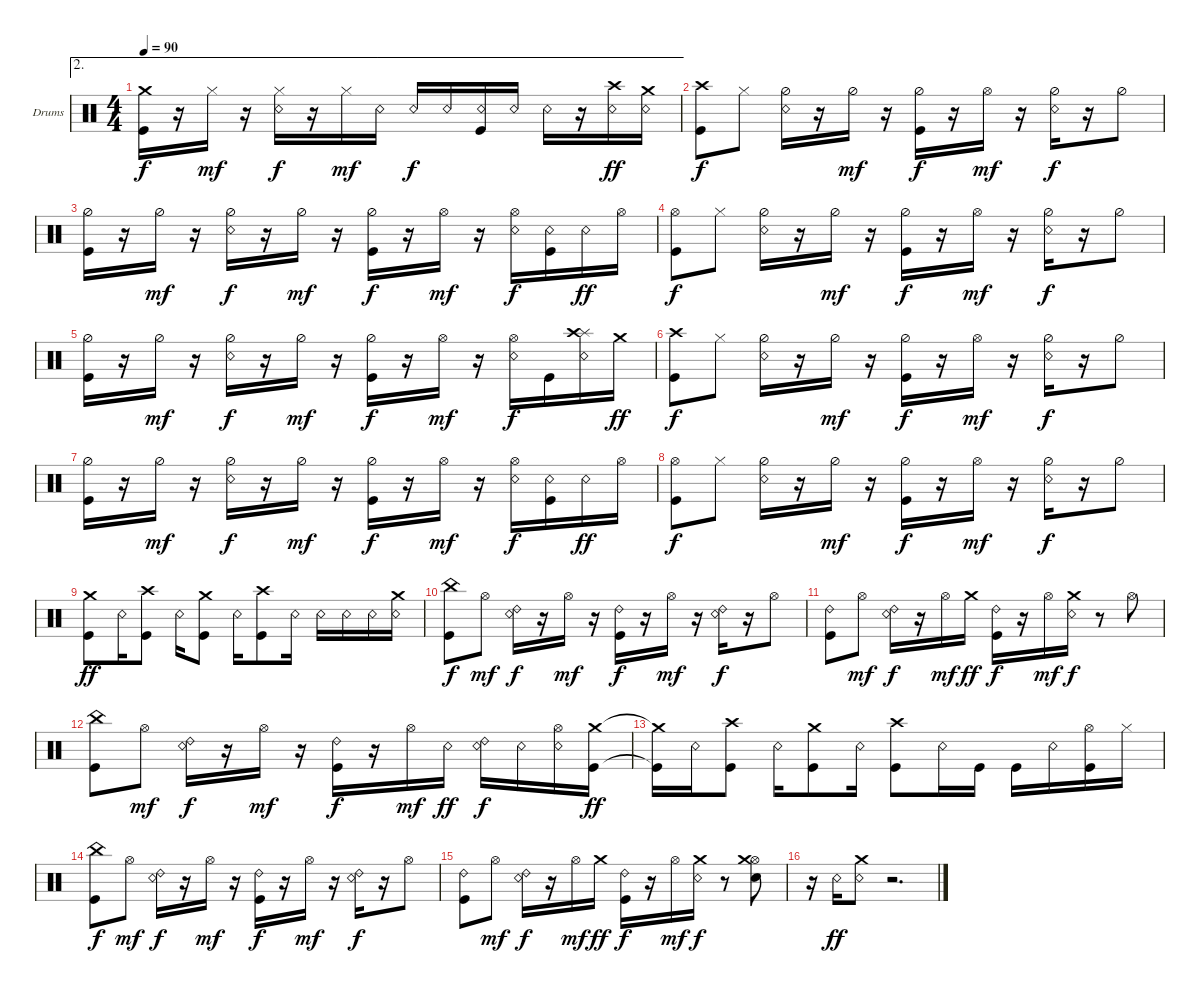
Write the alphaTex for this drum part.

\defaultSystemsLayout 4
\bracketExtendMode groupsimilarinstruments
\firstSystemTrackNameOrientation horizontal
\otherSystemsTrackNameOrientation horizontal
\track ("Batterie" "Drums") {instrument percussion}
\staff {score}
\articulation defaults
\ae 2
\ts (4 4)
\tempo 90
\clef neutral
\ks c
("Kick (hit)" "Crash medium (hit)").16{dy f} r.16 "Hi-Hat (closed)".16{dy mf} r.16 ("Snare (rim shot)" "Hi-Hat (closed)").16{dy f} r.16 "Hi-Hat (closed)".16{dy mf} "Snare (rim shot)".16 "Snare (rim shot)".16{dy f} "Snare (rim shot)".16 ("Kick (hit)" "Snare (rim shot)").16 "Snare (rim shot)".16 "Snare (rim shot)".16 r.16 ("Snare (rim shot)" "Crash high (hit)").16{dy ff} ("Snare (rim shot)" "Crash medium (hit)").16 |
("Kick (hit)" "Crash high (hit)").8{dy f} "Hi-Hat (closed)".8 ("Snare (rim shot)" "Hi-Hat (half)").16 r.16 "Hi-Hat (half)".16{dy mf} r.16 ("Kick (hit)" "Hi-Hat (half)").16{dy f} r.16 "Hi-Hat (open)".16{dy mf} r.16 ("Snare (rim shot)" "Hi-Hat (half)").16{dy f} r.16 "Hi-Hat (half)".8 |
("Kick (hit)" "Hi-Hat (half)").16 r.16 "Hi-Hat (half)".16{dy mf} r.16 ("Snare (rim shot)" "Hi-Hat (half)").16{dy f} r.16 "Hi-Hat (half)".16{dy mf} r.16 ("Kick (hit)" "Hi-Hat (half)").16{dy f} r.16 "Hi-Hat (open)".16{dy mf} r.16 ("Snare (rim shot)" "Hi-Hat (open)").16{dy f} ("Kick (hit)" "Snare (rim shot)").16 "Snare (rim shot)".16{dy ff} "Hi-Hat (open)".16 |
("Kick (hit)" "Hi-Hat (open)").8{dy f} "Hi-Hat (closed)".8 ("Snare (rim shot)" "Hi-Hat (half)").16 r.16 "Hi-Hat (half)".16{dy mf} r.16 ("Kick (hit)" "Hi-Hat (half)").16{dy f} r.16 "Hi-Hat (open)".16{dy mf} r.16 ("Snare (rim shot)" "Hi-Hat (half)").16{dy f} r.16 "Hi-Hat (half)".8 |
("Kick (hit)" "Hi-Hat (half)").16 r.16 "Hi-Hat (half)".16{dy mf} r.16 ("Snare (rim shot)" "Hi-Hat (half)").16{dy f} r.16 "Hi-Hat (half)".16{dy mf} r.16 ("Kick (hit)" "Hi-Hat (half)").16{dy f} r.16 "Hi-Hat (open)".16{dy mf} r.16 ("Snare (rim shot)" "Hi-Hat (open)").16{dy f} "Kick (hit)".16 ("Splash (hit)" "Crash high (hit)" "Snare (rim shot)").16 "Crash medium (hit)".16{dy ff} |
("Kick (hit)" "Crash high (hit)").8{dy f} "Hi-Hat (closed)".8 ("Snare (rim shot)" "Hi-Hat (half)").16 r.16 "Hi-Hat (half)".16{dy mf} r.16 ("Kick (hit)" "Hi-Hat (half)").16{dy f} r.16 "Hi-Hat (open)".16{dy mf} r.16 ("Snare (rim shot)" "Hi-Hat (half)").16{dy f} r.16 "Hi-Hat (half)".8 |
("Kick (hit)" "Hi-Hat (half)").16 r.16 "Hi-Hat (half)".16{dy mf} r.16 ("Snare (rim shot)" "Hi-Hat (half)").16{dy f} r.16 "Hi-Hat (half)".16{dy mf} r.16 ("Kick (hit)" "Hi-Hat (half)").16{dy f} r.16 "Hi-Hat (open)".16{dy mf} r.16 ("Snare (rim shot)" "Hi-Hat (open)").16{dy f} ("Kick (hit)" "Snare (rim shot)").16 "Snare (rim shot)".16{dy ff} "Hi-Hat (open)".16 |
("Kick (hit)" "Hi-Hat (open)").8{dy f} "Hi-Hat (closed)".8 ("Snare (rim shot)" "Hi-Hat (half)").16 r.16 "Hi-Hat (half)".16{dy mf} r.16 ("Kick (hit)" "Hi-Hat (half)").16{dy f} r.16 "Hi-Hat (open)".16{dy mf} r.16 ("Snare (rim shot)" "Hi-Hat (half)").16{dy f} r.16 "Hi-Hat (half)".8 |
("Kick (hit)" "Crash medium (hit)").8{dy ff} "Snare (rim shot)".16 ("Kick (hit)" "Crash high (hit)").8 "Snare (rim shot)".16 ("Kick (hit)" "Crash medium (hit)").8 "Snare (rim shot)".16 ("Kick (hit)" "Crash high (hit)").8 "Snare (rim shot)".16 "Snare (rim shot)".16 "Snare (rim shot)".16 "Snare (rim shot)".16 ("Snare (rim shot)" "Crash medium (hit)").16 |
("Kick (hit)" "China (hit)").8{dy f} "Hi-Hat (open)".8{dy mf} ("Snare (rim shot)" "Ride (bell) 2").16{dy f} r.16 "Hi-Hat (open)".16{dy mf} r.16 ("Kick (hit)" "Ride (bell) 2").16{dy f} r.16 "Hi-Hat (open)".16{dy mf} r.16 ("Snare (rim shot)" "Ride (bell) 2").16{dy f} r.16 "Hi-Hat (open)".8 |
("Kick (hit)" "Ride (bell) 2").8 "Hi-Hat (open)".8{dy mf} ("Snare (rim shot)" "Ride (bell) 2").16{dy f} r.16 "Hi-Hat (open)".16{dy mf} "Crash medium (hit)".16{dy ff} ("Kick (hit)" "Ride (bell) 2").16{dy f} r.16 "Hi-Hat (open)".16{dy mf} ("Crash medium (hit)" "Snare (rim shot)").16{dy f} r.8 "Hi-Hat (open)".8 |
("Kick (hit)" "China (hit)").8 "Hi-Hat (open)".8{dy mf} ("Snare (rim shot)" "Ride (bell) 2").16{dy f} r.16 "Hi-Hat (open)".16{dy mf} r.16 ("Kick (hit)" "Ride (bell) 2").16{dy f} r.16 "Hi-Hat (open)".16{dy mf} "Snare (rim shot)".16{dy ff} ("Snare (rim shot)" "Ride (bell) 2").16{dy f} "Snare (rim shot)".16 ("Hi-Hat (open)" "Snare (rim shot)").16 ("Kick (hit)" "Crash medium (hit)").16{dy ff} |
("Kick (hit)"{t} "Crash medium (hit)"{t}).16 "Snare (rim shot)".16 ("Kick (hit)" "Crash high (hit)").8 "Snare (rim shot)".16 ("Kick (hit)" "Crash medium (hit)").8 "Snare (rim shot)".16 ("Kick (hit)" "Crash high (hit)").8 "Snare (rim shot)".16 "Kick (hit)".16 "Kick (hit)".16 "Snare (rim shot)".16 ("Kick (hit)" "Hi-Hat (open)").16 "Hi-Hat (closed)".16 |
("Kick (hit)" "China (hit)").8{dy f} "Hi-Hat (open)".8{dy mf} ("Snare (rim shot)" "Ride (bell) 2").16{dy f} r.16 "Hi-Hat (open)".16{dy mf} r.16 ("Kick (hit)" "Ride (bell) 2").16{dy f} r.16 "Hi-Hat (open)".16{dy mf} r.16 ("Snare (rim shot)" "Ride (bell) 2").16{dy f} r.16 "Hi-Hat (open)".8 |
("Kick (hit)" "Ride (bell) 2").8 "Hi-Hat (open)".8{dy mf} ("Snare (rim shot)" "Ride (bell) 2").16{dy f} r.16 "Hi-Hat (open)".16{dy mf} "Crash medium (hit)".16{dy ff} ("Kick (hit)" "Ride (bell) 2").16{dy f} r.16 "Hi-Hat (open)".16{dy mf} ("Crash medium (hit)" "Snare (rim shot)").16{dy f} r.8 ("Hi-Hat (open)" "Crash medium (hit)" "Snare (hit) 2").8 |
r.16 "Snare (rim shot)".16{dy ff} ("Snare (rim shot)" "Crash medium (hit)").8 r.2{d}
